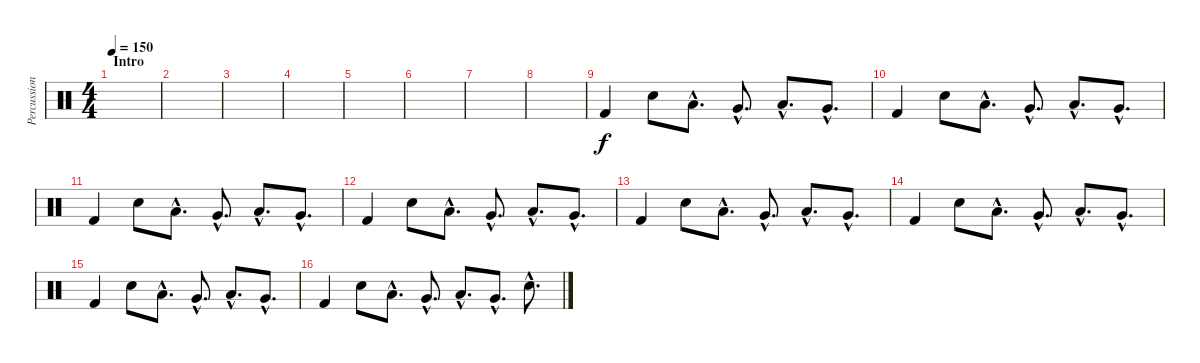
\track ("Percussion" "Percussion") {instrument percussion}
\staff {score}
\articulation defaults
\ts (4 4)
\section ("" "Intro")
\tempo 150
\clef neutral
\ks c
|
|
|
|
|
|
|
|
"Kick (hit) 2".4 "Electric Snare (hit)".8 "Low Tom (hit)"{hac}.8{d} "Very Low Tom (hit)"{hac}.8{d} "Low Tom (hit)"{hac}.8{d} "Very Low Tom (hit)"{hac}.8{d} |
"Kick (hit) 2".4 "Electric Snare (hit)".8 "Low Tom (hit)"{hac}.8{d} "Very Low Tom (hit)"{hac}.8{d} "Low Tom (hit)"{hac}.8{d} "Very Low Tom (hit)"{hac}.8{d} |
"Kick (hit) 2".4 "Electric Snare (hit)".8 "Low Tom (hit)"{hac}.8{d} "Very Low Tom (hit)"{hac}.8{d} "Low Tom (hit)"{hac}.8{d} "Very Low Tom (hit)"{hac}.8{d} |
"Kick (hit) 2".4 "Electric Snare (hit)".8 "Low Tom (hit)"{hac}.8{d} "Very Low Tom (hit)"{hac}.8{d} "Low Tom (hit)"{hac}.8{d} "Very Low Tom (hit)"{hac}.8{d} |
"Kick (hit) 2".4 "Electric Snare (hit)".8 "Low Tom (hit)"{hac}.8{d} "Very Low Tom (hit)"{hac}.8{d} "Low Tom (hit)"{hac}.8{d} "Very Low Tom (hit)"{hac}.8{d} |
"Kick (hit) 2".4 "Electric Snare (hit)".8 "Low Tom (hit)"{hac}.8{d} "Very Low Tom (hit)"{hac}.8{d} "Low Tom (hit)"{hac}.8{d} "Very Low Tom (hit)"{hac}.8{d} |
"Kick (hit) 2".4 "Electric Snare (hit)".8 "Low Tom (hit)"{hac}.8{d} "Very Low Tom (hit)"{hac}.8{d} "Low Tom (hit)"{hac}.8{d} "Very Low Tom (hit)"{hac}.8{d} |
"Kick (hit) 2".4 "Electric Snare (hit)".8 "Low Tom (hit)"{hac}.8{d} "Very Low Tom (hit)"{hac}.8{d} "Low Tom (hit)"{hac}.8{d} "Very Low Tom (hit)"{hac}.8{d} "Electric Snare (hit)"{hac}.8{d}
